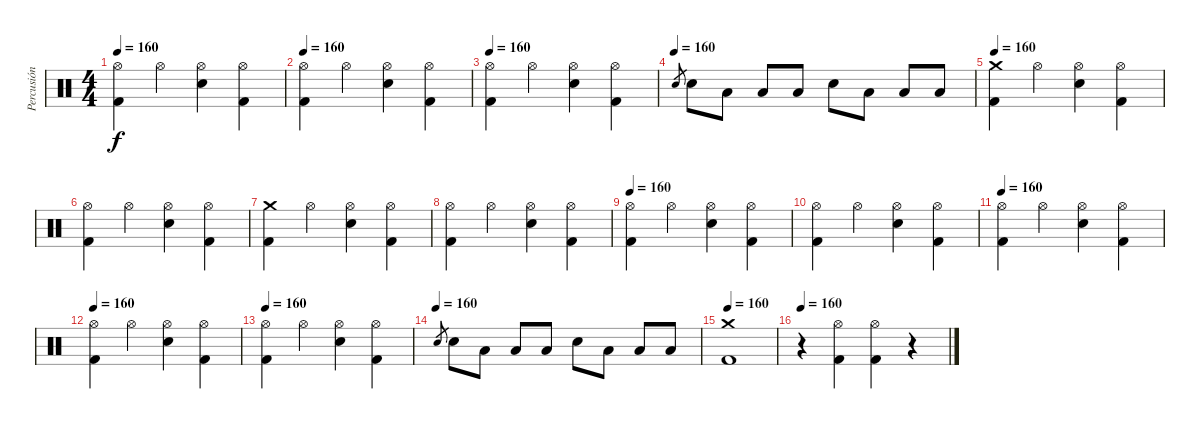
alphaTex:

\track ("Percusión" "Percusión") {instrument percussion}
\staff {score}
\articulation defaults
\ts (4 4)
\tempo 160
\clef neutral
\ks c
("Hi-Hat (open)" "Kick (hit) 2").4{dy f} "Hi-Hat (open)".4 ("Hi-Hat (open)" "Snare (hit) 2").4 ("Hi-Hat (open)" "Kick (hit) 2").4 |
\tempo 160
("Hi-Hat (open)" "Kick (hit) 2").4 "Hi-Hat (open)".4 ("Hi-Hat (open)" "Snare (hit) 2").4 ("Hi-Hat (open)" "Kick (hit) 2").4 |
\tempo 160
("Hi-Hat (open)" "Kick (hit) 2").4 "Hi-Hat (open)".4 ("Hi-Hat (open)" "Snare (hit) 2").4 ("Hi-Hat (open)" "Kick (hit) 2").4 |
\tempo (160)
"Snare (hit) 2".8{gr} "Snare (hit) 2".8 "Low Tom (hit)".8 "Low Tom (hit)".8 "Low Tom (hit)".8 "Snare (hit) 2".8 "Low Tom (hit)".8 "Low Tom (hit)".8 "Low Tom (hit)".8 |
\tempo 160
("Crash medium (hit)" "Kick (hit) 2").4 "Hi-Hat (open)".4 ("Hi-Hat (open)" "Snare (hit) 2").4 ("Hi-Hat (open)" "Kick (hit) 2").4 |
("Hi-Hat (open)" "Kick (hit) 2").4 "Hi-Hat (open)".4 ("Hi-Hat (open)" "Snare (hit) 2").4 ("Hi-Hat (open)" "Kick (hit) 2").4 |
("Crash medium (hit)" "Kick (hit) 2").4 "Hi-Hat (open)".4 ("Hi-Hat (open)" "Snare (hit) 2").4 ("Hi-Hat (open)" "Kick (hit) 2").4 |
("Hi-Hat (open)" "Kick (hit) 2").4 "Hi-Hat (open)".4 ("Hi-Hat (open)" "Snare (hit) 2").4 ("Hi-Hat (open)" "Kick (hit) 2").4 |
\tempo 160
("Hi-Hat (open)" "Kick (hit) 2").4 "Hi-Hat (open)".4 ("Hi-Hat (open)" "Snare (hit) 2").4 ("Hi-Hat (open)" "Kick (hit) 2").4 |
("Hi-Hat (open)" "Kick (hit) 2").4 "Hi-Hat (open)".4 ("Hi-Hat (open)" "Snare (hit) 2").4 ("Hi-Hat (open)" "Kick (hit) 2").4 |
\tempo 160
("Hi-Hat (open)" "Kick (hit) 2").4 "Hi-Hat (open)".4 ("Hi-Hat (open)" "Snare (hit) 2").4 ("Hi-Hat (open)" "Kick (hit) 2").4 |
\tempo 160
("Hi-Hat (open)" "Kick (hit) 2").4 "Hi-Hat (open)".4 ("Hi-Hat (open)" "Snare (hit) 2").4 ("Hi-Hat (open)" "Kick (hit) 2").4 |
\tempo 160
("Hi-Hat (open)" "Kick (hit) 2").4 "Hi-Hat (open)".4 ("Hi-Hat (open)" "Snare (hit) 2").4 ("Hi-Hat (open)" "Kick (hit) 2").4 |
\tempo (160)
"Snare (hit) 2".8{gr} "Snare (hit) 2".8 "Low Tom (hit)".8 "Low Tom (hit)".8 "Low Tom (hit)".8 "Snare (hit) 2".8 "Low Tom (hit)".8 "Low Tom (hit)".8 "Low Tom (hit)".8 |
\section ("" "")
\tempo 160
("Kick (hit) 2" "Crash medium (hit)").1 |
\tempo 160
r.4 ("Hi-Hat (open)" "Kick (hit) 2").4 ("Hi-Hat (open)" "Kick (hit) 2").4 r.4
